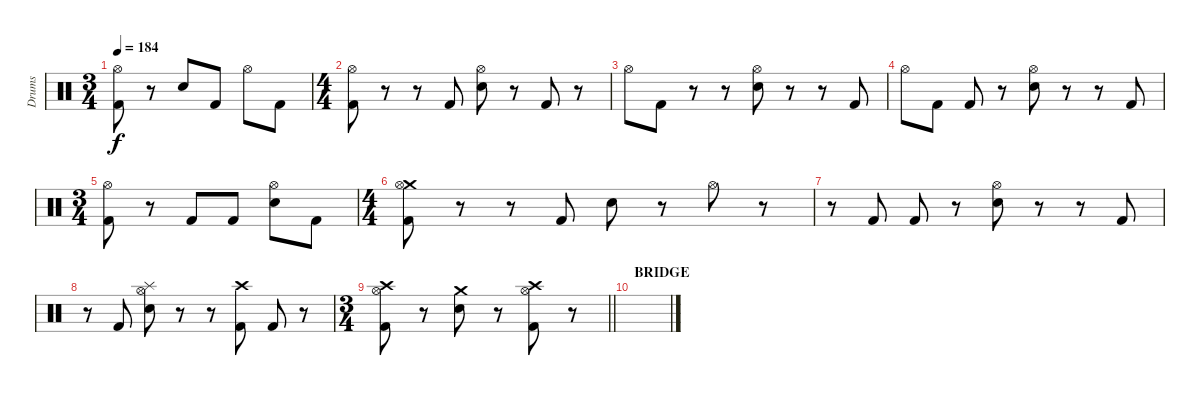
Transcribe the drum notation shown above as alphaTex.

\track ("Drums" "Drums") {instrument percussion}
\staff {score}
\articulation defaults
\ts (3 4)
\tempo 184
\clef neutral
\ks c
("Hi-Hat (open)" "Kick (hit) 2").8{dy f} r.8 "Snare (hit) 2".8 "Kick (hit) 2".8 "Hi-Hat (open)".8 "Kick (hit) 2".8 |
\ts (4 4)
("Hi-Hat (open)" "Kick (hit) 2").8 r.8 r.8 "Kick (hit) 2".8 ("Hi-Hat (open)" "Snare (hit) 2").8 r.8 "Kick (hit) 2".8 r.8 |
"Hi-Hat (open)".8 "Kick (hit) 2".8 r.8 r.8 ("Hi-Hat (open)" "Snare (hit) 2").8 r.8 r.8 "Kick (hit) 2".8 |
"Hi-Hat (open)".8 "Kick (hit) 2".8 "Kick (hit) 2".8 r.8 ("Hi-Hat (open)" "Snare (hit) 2").8 r.8 r.8 "Kick (hit) 2".8 |
\ts (3 4)
("Hi-Hat (open)" "Kick (hit) 2").8 r.8 "Kick (hit) 2".8 "Kick (hit) 2".8 ("Hi-Hat (open)" "Snare (hit) 2").8 "Kick (hit) 2".8 |
\ts (4 4)
("Crash medium (hit)" "Hi-Hat (open)" "Kick (hit) 2").8 r.8 r.8 "Kick (hit) 2".8 "Snare (hit) 2".8 r.8 "Hi-Hat (open)".8 r.8 |
r.8 "Kick (hit) 2".8 "Kick (hit) 2".8 r.8 ("Hi-Hat (open)" "Snare (hit) 2").8 r.8 r.8 "Kick (hit) 2".8 |
r.8 "Kick (hit) 2".8 ("Splash (hit)" "Hi-Hat (open)" "Snare (hit) 2").8 r.8 r.8 ("Crash high (hit)" "Kick (hit) 2").8 "Kick (hit) 2".8 r.8 |
\ts (3 4)
\barLineRight lightlight
("Crash high (hit)" "Hi-Hat (open)" "Kick (hit) 2").8 r.8 ("Crash medium (hit)" "Snare (hit) 2").8 r.8 ("Crash high (hit)" "Hi-Hat (open)" "Kick (hit) 2").8 r.8 |
\section ("" "BRIDGE")
